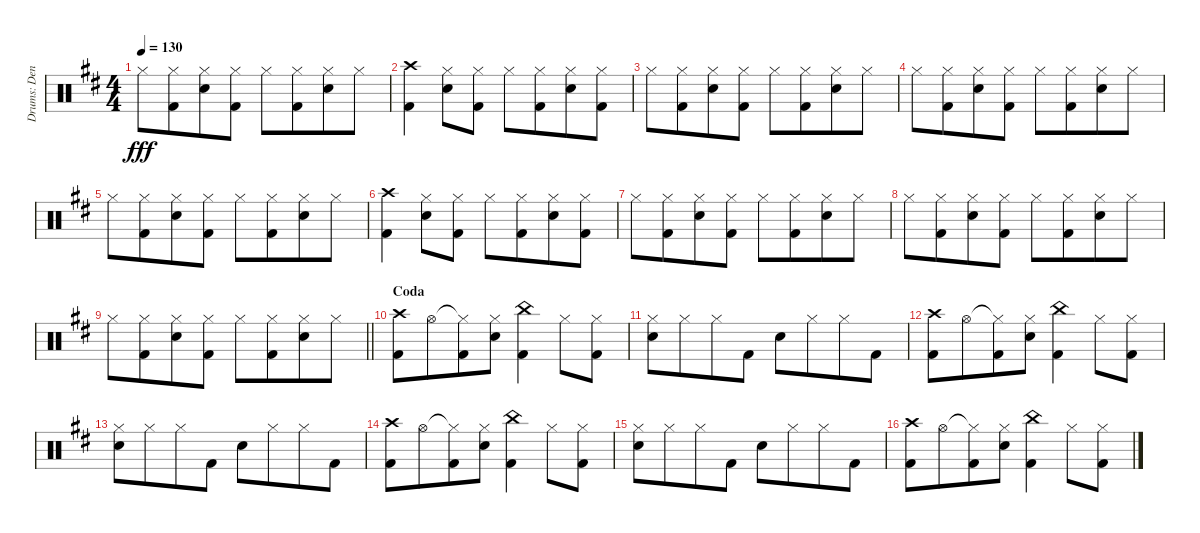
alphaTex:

\track ("Drums: Denny" "Drums: Den") {instrument percussion}
\staff {score}
\articulation defaults
\ts (4 4)
\tempo 130
\clef neutral
\ks d "Hi-Hat (closed)".8{dy fff}
("Hi-Hat (closed)" "Kick (hit) 2").8{beam merge} ("Hi-Hat (closed)" "Electric Snare (hit)").8 ("Hi-Hat (closed)" "Kick (hit) 2").8 "Hi-Hat (closed)".8 ("Hi-Hat (closed)" "Kick (hit) 2").8{beam merge} ("Hi-Hat (closed)" "Electric Snare (hit)").8 "Hi-Hat (closed)".8 |
("Crash high (hit)" "Kick (hit) 2").4 ("Hi-Hat (closed)" "Electric Snare (hit)").8 ("Hi-Hat (closed)" "Kick (hit) 2").8 "Hi-Hat (closed)".8 ("Hi-Hat (closed)" "Kick (hit) 2").8{beam merge} ("Hi-Hat (closed)" "Electric Snare (hit)").8 ("Hi-Hat (closed)" "Kick (hit) 2").8 |
"Hi-Hat (closed)".8 ("Hi-Hat (closed)" "Kick (hit) 2").8{beam merge} ("Hi-Hat (closed)" "Electric Snare (hit)").8 ("Hi-Hat (closed)" "Kick (hit) 2").8 "Hi-Hat (closed)".8 ("Hi-Hat (closed)" "Kick (hit) 2").8{beam merge} ("Hi-Hat (closed)" "Electric Snare (hit)").8 "Hi-Hat (closed)".8 |
"Hi-Hat (closed)".8 ("Hi-Hat (closed)" "Kick (hit) 2").8{beam merge} ("Hi-Hat (closed)" "Electric Snare (hit)").8 ("Hi-Hat (closed)" "Kick (hit) 2").8 "Hi-Hat (closed)".8 ("Hi-Hat (closed)" "Kick (hit) 2").8{beam merge} ("Hi-Hat (closed)" "Electric Snare (hit)").8 "Hi-Hat (closed)".8 |
"Hi-Hat (closed)".8 ("Hi-Hat (closed)" "Kick (hit) 2").8{beam merge} ("Hi-Hat (closed)" "Electric Snare (hit)").8 ("Hi-Hat (closed)" "Kick (hit) 2").8 "Hi-Hat (closed)".8 ("Hi-Hat (closed)" "Kick (hit) 2").8{beam merge} ("Hi-Hat (closed)" "Electric Snare (hit)").8 "Hi-Hat (closed)".8 |
("Crash high (hit)" "Kick (hit) 2").4 ("Hi-Hat (closed)" "Electric Snare (hit)").8 ("Hi-Hat (closed)" "Kick (hit) 2").8 "Hi-Hat (closed)".8 ("Hi-Hat (closed)" "Kick (hit) 2").8{beam merge} ("Hi-Hat (closed)" "Electric Snare (hit)").8 ("Hi-Hat (closed)" "Kick (hit) 2").8 |
"Hi-Hat (closed)".8 ("Hi-Hat (closed)" "Kick (hit) 2").8{beam merge} ("Hi-Hat (closed)" "Electric Snare (hit)").8 ("Hi-Hat (closed)" "Kick (hit) 2").8 "Hi-Hat (closed)".8 ("Hi-Hat (closed)" "Kick (hit) 2").8{beam merge} ("Hi-Hat (closed)" "Electric Snare (hit)").8 "Hi-Hat (closed)".8 |
"Hi-Hat (closed)".8 ("Hi-Hat (closed)" "Kick (hit) 2").8{beam merge} ("Hi-Hat (closed)" "Electric Snare (hit)").8 ("Hi-Hat (closed)" "Kick (hit) 2").8 "Hi-Hat (closed)".8 ("Hi-Hat (closed)" "Kick (hit) 2").8{beam merge} ("Hi-Hat (closed)" "Electric Snare (hit)").8 "Hi-Hat (closed)".8 |
\barLineRight lightlight "Hi-Hat (closed)".8
("Hi-Hat (closed)" "Kick (hit) 2").8{beam merge} ("Hi-Hat (closed)" "Electric Snare (hit)").8 ("Hi-Hat (closed)" "Kick (hit) 2").8 "Hi-Hat (closed)".8 ("Hi-Hat (closed)" "Kick (hit) 2").8{beam merge} ("Hi-Hat (closed)" "Electric Snare (hit)").8 "Hi-Hat (closed)".8 |
\section ("" "Coda")
("Crash high (hit)" "Kick (hit) 2").8 "Hi-Hat (open)".8{beam merge} ("Hi-Hat (closed)"{t} "Kick (hit) 2").8{beam merge} ("Hi-Hat (closed)" "Electric Snare (hit)").8 ("China (hit)" "Kick (hit) 2").4 "Hi-Hat (closed)".8{beam merge} ("Hi-Hat (closed)" "Kick (hit) 2").8 |
("Hi-Hat (closed)" "Electric Snare (hit)").8 "Hi-Hat (closed)".8{beam merge} "Hi-Hat (closed)".8 "Kick (hit) 2".8 "Electric Snare (hit)".8 "Hi-Hat (closed)".8{beam merge} "Hi-Hat (closed)".8 "Kick (hit) 2".8 |
("Crash high (hit)" "Kick (hit) 2").8 "Hi-Hat (open)".8{beam merge} ("Hi-Hat (closed)"{t} "Kick (hit) 2").8{beam merge} ("Hi-Hat (closed)" "Electric Snare (hit)").8 ("China (hit)" "Kick (hit) 2").4 "Hi-Hat (closed)".8{beam merge} ("Hi-Hat (closed)" "Kick (hit) 2").8 |
("Hi-Hat (closed)" "Electric Snare (hit)").8 "Hi-Hat (closed)".8{beam merge} "Hi-Hat (closed)".8 "Kick (hit) 2".8 "Electric Snare (hit)".8 "Hi-Hat (closed)".8{beam merge} "Hi-Hat (closed)".8 "Kick (hit) 2".8 |
("Crash high (hit)" "Kick (hit) 2").8 "Hi-Hat (open)".8{beam merge} ("Hi-Hat (closed)"{t} "Kick (hit) 2").8{beam merge} ("Hi-Hat (closed)" "Electric Snare (hit)").8 ("China (hit)" "Kick (hit) 2").4 "Hi-Hat (closed)".8{beam merge} ("Hi-Hat (closed)" "Kick (hit) 2").8 |
("Hi-Hat (closed)" "Electric Snare (hit)").8 "Hi-Hat (closed)".8{beam merge} "Hi-Hat (closed)".8 "Kick (hit) 2".8 "Electric Snare (hit)".8 "Hi-Hat (closed)".8{beam merge} "Hi-Hat (closed)".8 "Kick (hit) 2".8 |
("Crash high (hit)" "Kick (hit) 2").8 "Hi-Hat (open)".8{beam merge} ("Hi-Hat (closed)"{t} "Kick (hit) 2").8{beam merge} ("Hi-Hat (closed)" "Electric Snare (hit)").8 ("China (hit)" "Kick (hit) 2").4 "Hi-Hat (closed)".8{beam merge} ("Hi-Hat (closed)" "Kick (hit) 2").8
